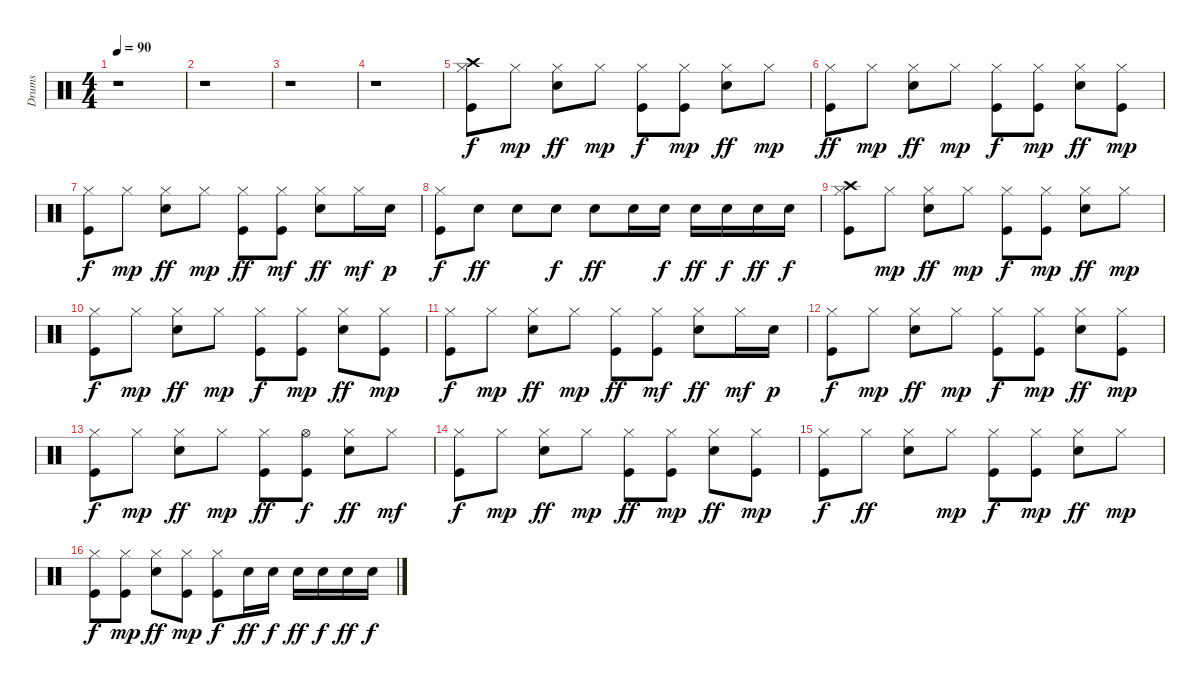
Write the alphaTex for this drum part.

\track ("Drums" "Drums") {instrument percussion}
\staff {score}
\articulation defaults
\ts (4 4)
\tempo 90
\clef neutral
\ks c
r.1{dy f} |
r.1 |
r.1 |
r.1 |
("Kick (hit)" "Hi-Hat (closed)" "Crash high (hit)").8 "Hi-Hat (closed)".8{dy mp} ("Snare (hit) 2" "Hi-Hat (closed)").8{dy ff} "Hi-Hat (closed)".8{dy mp} ("Kick (hit)" "Hi-Hat (closed)").8{dy f} ("Kick (hit)" "Hi-Hat (closed)").8{dy mp} ("Snare (hit) 2" "Hi-Hat (closed)").8{dy ff} "Hi-Hat (closed)".8{dy mp} |
("Kick (hit)" "Hi-Hat (closed)").8{dy ff} "Hi-Hat (closed)".8{dy mp} ("Snare (hit) 2" "Hi-Hat (closed)").8{dy ff} "Hi-Hat (closed)".8{dy mp} ("Kick (hit)" "Hi-Hat (closed)").8{dy f} ("Kick (hit)" "Hi-Hat (closed)").8{dy mp} ("Snare (hit) 2" "Hi-Hat (closed)").8{dy ff} ("Kick (hit)" "Hi-Hat (closed)").8{dy mp} |
("Kick (hit)" "Hi-Hat (closed)").8{dy f} "Hi-Hat (closed)".8{dy mp} ("Snare (hit) 2" "Hi-Hat (closed)").8{dy ff} "Hi-Hat (closed)".8{dy mp} ("Kick (hit)" "Hi-Hat (closed)").8{dy ff} ("Kick (hit)" "Hi-Hat (closed)").8{dy mf} ("Snare (hit) 2" "Hi-Hat (closed)").8{dy ff} "Hi-Hat (closed)".16{dy mf} "Snare (hit) 2".16{dy p} |
("Kick (hit)" "Hi-Hat (closed)").8{dy f} "Snare (hit) 2".8{dy ff} "Snare (hit) 2".8 "Snare (hit) 2".8{dy f} "Snare (hit) 2".8{dy ff} "Snare (hit) 2".16 "Snare (hit) 2".16{dy f} "Snare (hit) 2".16{dy ff} "Snare (hit) 2".16{dy f} "Snare (hit) 2".16{dy ff} "Snare (hit) 2".16{dy f} |
("Kick (hit)" "Hi-Hat (closed)" "Crash high (hit)").8 "Hi-Hat (closed)".8{dy mp} ("Snare (hit) 2" "Hi-Hat (closed)").8{dy ff} "Hi-Hat (closed)".8{dy mp} ("Kick (hit)" "Hi-Hat (closed)").8{dy f} ("Kick (hit)" "Hi-Hat (closed)").8{dy mp} ("Snare (hit) 2" "Hi-Hat (closed)").8{dy ff} "Hi-Hat (closed)".8{dy mp} |
("Kick (hit)" "Hi-Hat (closed)").8{dy f} "Hi-Hat (closed)".8{dy mp} ("Snare (hit) 2" "Hi-Hat (closed)").8{dy ff} "Hi-Hat (closed)".8{dy mp} ("Kick (hit)" "Hi-Hat (closed)").8{dy f} ("Kick (hit)" "Hi-Hat (closed)").8{dy mp} ("Snare (hit) 2" "Hi-Hat (closed)").8{dy ff} ("Kick (hit)" "Hi-Hat (closed)").8{dy mp} |
("Kick (hit)" "Hi-Hat (closed)").8{dy f} "Hi-Hat (closed)".8{dy mp} ("Snare (hit) 2" "Hi-Hat (closed)").8{dy ff} "Hi-Hat (closed)".8{dy mp} ("Kick (hit)" "Hi-Hat (closed)").8{dy ff} ("Kick (hit)" "Hi-Hat (closed)").8{dy mf} ("Snare (hit) 2" "Hi-Hat (closed)").8{dy ff} "Hi-Hat (closed)".16{dy mf} "Snare (hit) 2".16{dy p} |
("Kick (hit)" "Hi-Hat (closed)").8{dy f} "Hi-Hat (closed)".8{dy mp} ("Snare (hit) 2" "Hi-Hat (closed)").8{dy ff} "Hi-Hat (closed)".8{dy mp} ("Kick (hit)" "Hi-Hat (closed)").8{dy f} ("Kick (hit)" "Hi-Hat (closed)").8{dy mp} ("Snare (hit) 2" "Hi-Hat (closed)").8{dy ff} ("Kick (hit)" "Hi-Hat (closed)").8{dy mp} |
("Kick (hit)" "Hi-Hat (closed)").8{dy f} "Hi-Hat (closed)".8{dy mp} ("Snare (hit) 2" "Hi-Hat (closed)").8{dy ff} "Hi-Hat (closed)".8{dy mp} ("Kick (hit)" "Hi-Hat (closed)").8{dy ff} ("Kick (hit)" "Hi-Hat (open)").8{dy f} ("Snare (hit) 2" "Hi-Hat (closed)").8{dy ff} "Hi-Hat (closed)".8{dy mf} |
("Kick (hit)" "Hi-Hat (closed)").8{dy f} "Hi-Hat (closed)".8{dy mp} ("Snare (hit) 2" "Hi-Hat (closed)").8{dy ff} "Hi-Hat (closed)".8{dy mp} ("Kick (hit)" "Hi-Hat (closed)").8{dy ff} ("Kick (hit)" "Hi-Hat (closed)").8{dy mp} ("Snare (hit) 2" "Hi-Hat (closed)").8{dy ff} ("Kick (hit)" "Hi-Hat (closed)").8{dy mp} |
("Kick (hit)" "Hi-Hat (closed)").8{dy f} "Hi-Hat (closed)".8{dy ff} ("Snare (hit) 2" "Hi-Hat (closed)").8 "Hi-Hat (closed)".8{dy mp} ("Kick (hit)" "Hi-Hat (closed)").8{dy f} ("Kick (hit)" "Hi-Hat (closed)").8{dy mp} ("Snare (hit) 2" "Hi-Hat (closed)").8{dy ff} "Hi-Hat (closed)".8{dy mp} |
("Kick (hit)" "Hi-Hat (closed)").8{dy f} ("Kick (hit)" "Hi-Hat (closed)").8{dy mp} ("Snare (hit) 2" "Hi-Hat (closed)").8{dy ff} ("Kick (hit)" "Hi-Hat (closed)").8{dy mp} ("Kick (hit)" "Hi-Hat (closed)").8{dy f} "Snare (hit) 2".16{dy ff} "Snare (hit) 2".16{dy f} "Snare (hit) 2".16{dy ff} "Snare (hit) 2".16{dy f} "Snare (hit) 2".16{dy ff} "Snare (hit) 2".16{dy f}
